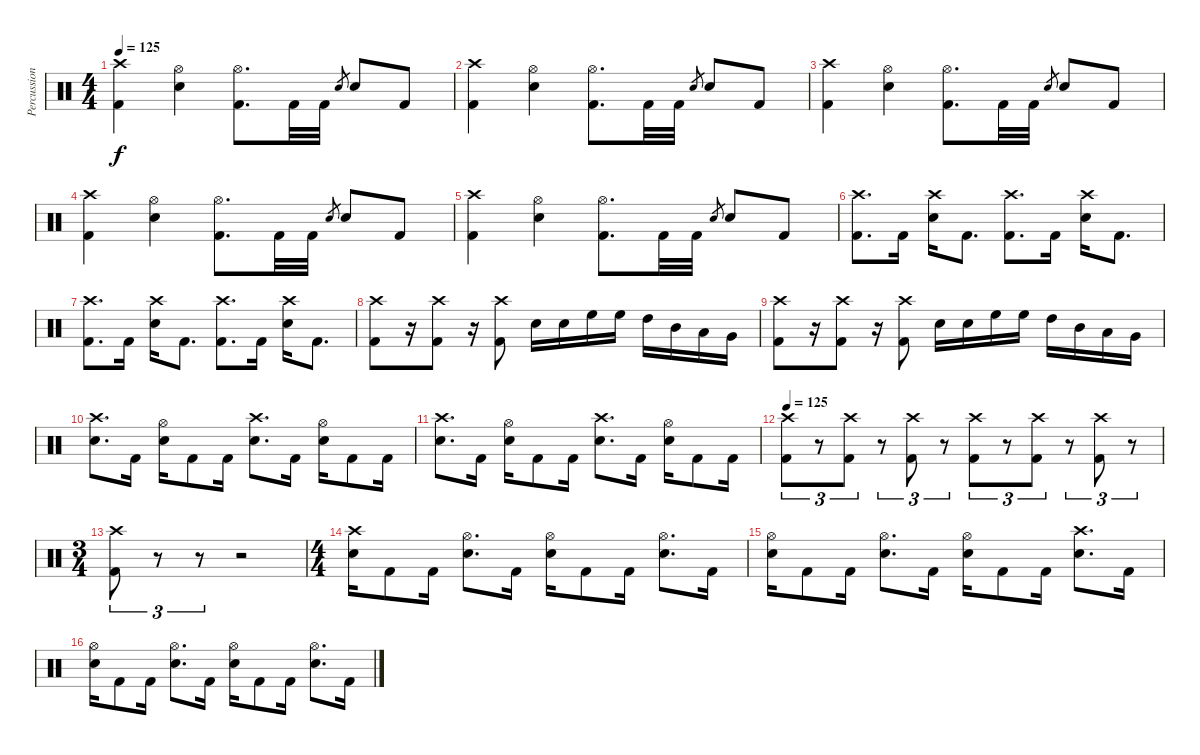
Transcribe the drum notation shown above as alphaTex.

\track ("Percussion" "Percussion") {instrument percussion}
\staff {score}
\articulation defaults
\ts (4 4)
\tempo 125
\clef neutral
\ks c
("Crash high (hit)" "Kick (hit) 2").4{dy f} ("Hi-Hat (open)" "Electric Snare (hit)").4 ("Hi-Hat (open)" "Kick (hit) 2").8{d} "Kick (hit) 2".32 "Kick (hit) 2".32 "Electric Snare (hit)".8{gr} "Electric Snare (hit)".8 "Kick (hit) 2".8 |
("Crash high (hit)" "Kick (hit) 2").4 ("Hi-Hat (open)" "Electric Snare (hit)").4 ("Hi-Hat (open)" "Kick (hit) 2").8{d} "Kick (hit) 2".32 "Kick (hit) 2".32 "Electric Snare (hit)".8{gr} "Electric Snare (hit)".8 "Kick (hit) 2".8 |
("Crash high (hit)" "Kick (hit) 2").4 ("Hi-Hat (open)" "Electric Snare (hit)").4 ("Hi-Hat (open)" "Kick (hit) 2").8{d} "Kick (hit) 2".32 "Kick (hit) 2".32 "Electric Snare (hit)".8{gr} "Electric Snare (hit)".8 "Kick (hit) 2".8 |
("Crash high (hit)" "Kick (hit) 2").4 ("Hi-Hat (open)" "Electric Snare (hit)").4 ("Hi-Hat (open)" "Kick (hit) 2").8{d} "Kick (hit) 2".32 "Kick (hit) 2".32 "Electric Snare (hit)".8{gr} "Electric Snare (hit)".8 "Kick (hit) 2".8 |
("Crash high (hit)" "Kick (hit) 2").4 ("Hi-Hat (open)" "Electric Snare (hit)").4 ("Hi-Hat (open)" "Kick (hit) 2").8{d} "Kick (hit) 2".32 "Kick (hit) 2".32 "Electric Snare (hit)".8{gr} "Electric Snare (hit)".8 "Kick (hit) 2".8 |
("Crash high (hit)" "Kick (hit) 2").8{d} "Kick (hit) 2".16 ("Crash high (hit)" "Electric Snare (hit)").16 "Kick (hit) 2".8{d} ("Crash high (hit)" "Kick (hit) 2").8{d} "Kick (hit) 2".16 ("Crash high (hit)" "Electric Snare (hit)").16 "Kick (hit) 2".8{d} |
("Crash high (hit)" "Kick (hit) 2").8{d} "Kick (hit) 2".16 ("Crash high (hit)" "Electric Snare (hit)").16 "Kick (hit) 2".8{d} ("Crash high (hit)" "Kick (hit) 2").8{d} "Kick (hit) 2".16 ("Crash high (hit)" "Electric Snare (hit)").16 "Kick (hit) 2".8{d} |
("Crash high (hit)" "Kick (hit) 2").8 r.16 ("Crash high (hit)" "Kick (hit) 2").8 r.16 ("Crash high (hit)" "Kick (hit) 2").8 "Electric Snare (hit)".16 "Electric Snare (hit)".16 "High Floor Tom (hit)".16 "High Floor Tom (hit)".16 "High Tom (hit)".16 "Mid Tom (hit)".16 "Low Tom (hit)".16 "Very Low Tom (hit)".16 |
("Crash high (hit)" "Kick (hit) 2").8 r.16 ("Crash high (hit)" "Kick (hit) 2").8 r.16 ("Crash high (hit)" "Kick (hit) 2").8 "Electric Snare (hit)".16 "Electric Snare (hit)".16 "High Floor Tom (hit)".16 "High Floor Tom (hit)".16 "High Tom (hit)".16 "Mid Tom (hit)".16 "Low Tom (hit)".16 "Very Low Tom (hit)".16 |
("Crash high (hit)" "Electric Snare (hit)").8{d} "Kick (hit) 2".16 ("Hi-Hat (open)" "Electric Snare (hit)").16 "Kick (hit) 2".8 "Kick (hit) 2".16 ("Crash high (hit)" "Electric Snare (hit)").8{d} "Kick (hit) 2".16 ("Hi-Hat (open)" "Electric Snare (hit)").16 "Kick (hit) 2".8 "Kick (hit) 2".16 |
("Crash high (hit)" "Electric Snare (hit)").8{d} "Kick (hit) 2".16 ("Hi-Hat (open)" "Electric Snare (hit)").16 "Kick (hit) 2".8 "Kick (hit) 2".16 ("Crash high (hit)" "Electric Snare (hit)").8{d} "Kick (hit) 2".16 ("Hi-Hat (open)" "Electric Snare (hit)").16 "Kick (hit) 2".8 "Kick (hit) 2".16 |
\tempo 125
("Crash high (hit)" "Kick (hit) 2").8{tu (3 2) volume 13} r.8{tu (3 2) volume 0} ("Crash high (hit)" "Kick (hit) 2").8{tu (3 2) volume 13} r.8{tu (3 2) volume 0} ("Crash high (hit)" "Kick (hit) 2").8{tu (3 2) volume 13} r.8{tu (3 2) volume 0} ("Crash high (hit)" "Kick (hit) 2").8{tu (3 2) volume 13} r.8{tu (3 2) volume 0} ("Crash high (hit)" "Kick (hit) 2").8{tu (3 2) volume 13} r.8{tu (3 2) volume 0} ("Crash high (hit)" "Kick (hit) 2").8{tu (3 2) volume 13} r.8{tu (3 2) volume 0} |
\ts (3 4)
("Crash high (hit)" "Kick (hit) 2").8{tu (3 2) volume 13} r.8{tu (3 2) volume 0} r.8{tu (3 2)} r.2 |
\ts (4 4)
("Crash high (hit)" "Electric Snare (hit)").16{volume 13} "Kick (hit) 2".8 "Kick (hit) 2".16 ("Hi-Hat (open)" "Electric Snare (hit)").8{d} "Kick (hit) 2".16 ("Hi-Hat (open)" "Electric Snare (hit)").16 "Kick (hit) 2".8 "Kick (hit) 2".16 ("Hi-Hat (open)" "Electric Snare (hit)").8{d} "Kick (hit) 2".16 |
("Hi-Hat (open)" "Electric Snare (hit)").16 "Kick (hit) 2".8 "Kick (hit) 2".16 ("Hi-Hat (open)" "Electric Snare (hit)").8{d} "Kick (hit) 2".16 ("Hi-Hat (open)" "Electric Snare (hit)").16 "Kick (hit) 2".8 "Kick (hit) 2".16 ("Crash high (hit)" "Electric Snare (hit)").8{d} "Kick (hit) 2".16 |
("Hi-Hat (open)" "Electric Snare (hit)").16 "Kick (hit) 2".8 "Kick (hit) 2".16 ("Hi-Hat (open)" "Electric Snare (hit)").8{d} "Kick (hit) 2".16 ("Hi-Hat (open)" "Electric Snare (hit)").16 "Kick (hit) 2".8 "Kick (hit) 2".16 ("Hi-Hat (open)" "Electric Snare (hit)").8{d} "Kick (hit) 2".16
